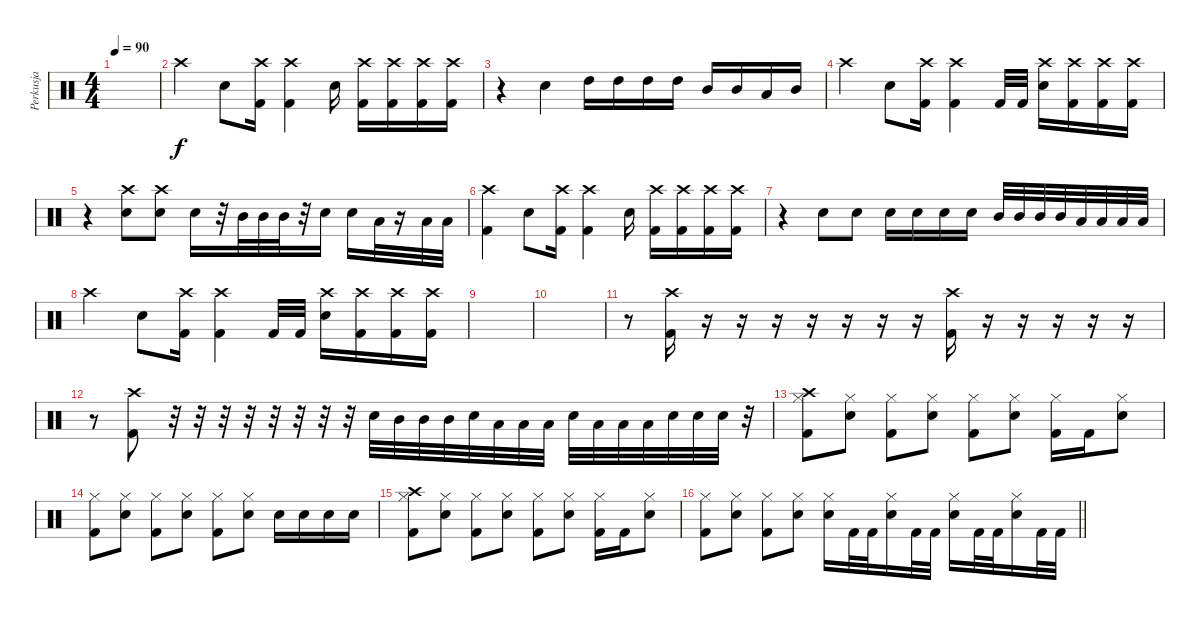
\track ("Perkusja" "Perkusja") {instrument percussion}
\staff {score}
\articulation defaults
\ts (4 4)
\tempo 90
\clef neutral
\ks c
|
"Crash high (hit)".4 "Snare (hit) 2".8 ("Kick (hit) 2" "Crash high (hit)").16 ("Crash high (hit)" "Kick (hit) 2").4 "Snare (hit) 2".16 ("Kick (hit) 2" "Crash high (hit)").16 ("Kick (hit) 2" "Crash high (hit)").16 ("Kick (hit) 2" "Crash high (hit)").16 ("Kick (hit) 2" "Crash high (hit)").16 |
r.4 "Snare (hit) 2".4 "High Tom (hit)".16 "High Tom (hit)".16 "High Tom (hit)".16 "High Tom (hit)".16 "Mid Tom (hit)".16 "Mid Tom (hit)".16 "Low Tom (hit)".16 "Mid Tom (hit)".16 |
"Crash high (hit)".4 "Snare (hit) 2".8 ("Kick (hit) 2" "Crash high (hit)").16 ("Crash high (hit)" "Kick (hit) 2").4 "Kick (hit) 2".32 "Kick (hit) 2".32 ("Snare (hit) 2" "Crash high (hit)").16 ("Kick (hit) 2" "Crash high (hit)").16 ("Kick (hit) 2" "Crash high (hit)").16 ("Kick (hit) 2" "Crash high (hit)").16 |
r.4 ("Crash high (hit)" "Snare (hit) 2").8 ("Crash high (hit)" "Snare (hit) 2").8 "Snare (hit) 2".16 r.32 "Mid Tom (hit)".32 "Mid Tom (hit)".32 "Mid Tom (hit)".32 r.32 "Snare (hit) 2".16 "Snare (hit) 2".16 "Low Tom (hit)".32 r.16 "Low Tom (hit)".32 "Low Tom (hit)".32 |
("Crash high (hit)" "Kick (hit) 2").4 "Snare (hit) 2".8 ("Kick (hit) 2" "Crash high (hit)").16 ("Crash high (hit)" "Kick (hit) 2").4 "Snare (hit) 2".16 ("Kick (hit) 2" "Crash high (hit)").16 ("Kick (hit) 2" "Crash high (hit)").16 ("Kick (hit) 2" "Crash high (hit)").16 ("Kick (hit) 2" "Crash high (hit)").16 |
r.4 "Snare (hit) 2".8 "Snare (hit) 2".8 "Snare (hit) 2".16 "Snare (hit) 2".16 "Snare (hit) 2".16 "Snare (hit) 2".16 "Mid Tom (hit)".32 "Mid Tom (hit)".32 "Mid Tom (hit)".32 "Mid Tom (hit)".32 "Low Floor Tom (hit)".32 "Low Floor Tom (hit)".32 "Low Floor Tom (hit)".32 "Low Floor Tom (hit)".32 |
"Crash high (hit)".4 "Snare (hit) 2".8 ("Kick (hit) 2" "Crash high (hit)").16 ("Crash high (hit)" "Kick (hit) 2").4 "Kick (hit) 2".32 "Kick (hit) 2".32 ("Snare (hit) 2" "Crash high (hit)").16 ("Kick (hit) 2" "Crash high (hit)").16 ("Kick (hit) 2" "Crash high (hit)").16 ("Kick (hit) 2" "Crash high (hit)").16 |
|
|
r.8 ("Kick (hit) 2" "Crash high (hit)").16 r.16 r.16 r.16 r.16 r.16 r.16 r.16 ("Kick (hit) 2" "Crash high (hit)").16 r.16 r.16 r.16 r.16 r.16 |
r.8 ("Kick (hit) 2" "Crash high (hit)").8 r.32 r.32 r.32 r.32 r.32 r.32 r.32 r.32 "Snare (hit) 2".32 "Mid Tom (hit)".32 "Mid Tom (hit)".32 "Mid Tom (hit)".32 "Snare (hit) 2".32 "Low Tom (hit)".32 "Low Tom (hit)".32 "Low Tom (hit)".32 "Snare (hit) 2".32 "Low Floor Tom (hit)".32 "Low Floor Tom (hit)".32 "Low Floor Tom (hit)".32 "Snare (hit) 2".32 "Snare (hit) 2".32 "Snare (hit) 2".32 r.32 |
("Kick (hit) 2" "Hi-Hat (closed)" "Crash high (hit)").8 ("Snare (hit) 2" "Hi-Hat (closed)").8 ("Kick (hit) 2" "Hi-Hat (closed)").8 ("Snare (hit) 2" "Hi-Hat (closed)").8 ("Kick (hit) 2" "Hi-Hat (closed)").8 ("Snare (hit) 2" "Hi-Hat (closed)").8 ("Kick (hit) 2" "Hi-Hat (closed)").16 "Kick (hit) 2".16 ("Snare (hit) 2" "Hi-Hat (closed)").8 |
("Kick (hit) 2" "Hi-Hat (closed)").8 ("Snare (hit) 2" "Hi-Hat (closed)").8 ("Kick (hit) 2" "Hi-Hat (closed)").8 ("Snare (hit) 2" "Hi-Hat (closed)").8 ("Kick (hit) 2" "Hi-Hat (closed)").8 ("Snare (hit) 2" "Hi-Hat (closed)").8 "Snare (hit) 2".16 "Snare (hit) 2".16 "Snare (hit) 2".16 "Snare (hit) 2".16 |
("Kick (hit) 2" "Hi-Hat (closed)" "Crash high (hit)").8 ("Snare (hit) 2" "Hi-Hat (closed)").8 ("Kick (hit) 2" "Hi-Hat (closed)").8 ("Snare (hit) 2" "Hi-Hat (closed)").8 ("Kick (hit) 2" "Hi-Hat (closed)").8 ("Snare (hit) 2" "Hi-Hat (closed)").8 ("Kick (hit) 2" "Hi-Hat (closed)").16 "Kick (hit) 2".16 ("Snare (hit) 2" "Hi-Hat (closed)").8 |
\barLineRight lightlight
("Kick (hit) 2" "Hi-Hat (closed)").8 ("Snare (hit) 2" "Hi-Hat (closed)").8 ("Kick (hit) 2" "Hi-Hat (closed)").8 ("Snare (hit) 2" "Hi-Hat (closed)").8 ("Snare (hit) 2" "Hi-Hat (closed)").16 "Kick (hit) 2".32 "Kick (hit) 2".32 ("Snare (hit) 2" "Hi-Hat (closed)").16 "Kick (hit) 2".32 "Kick (hit) 2".32 ("Snare (hit) 2" "Hi-Hat (closed)").16 "Kick (hit) 2".32 "Kick (hit) 2".32 ("Snare (hit) 2" "Hi-Hat (closed)").16 "Kick (hit) 2".32 "Kick (hit) 2".32
